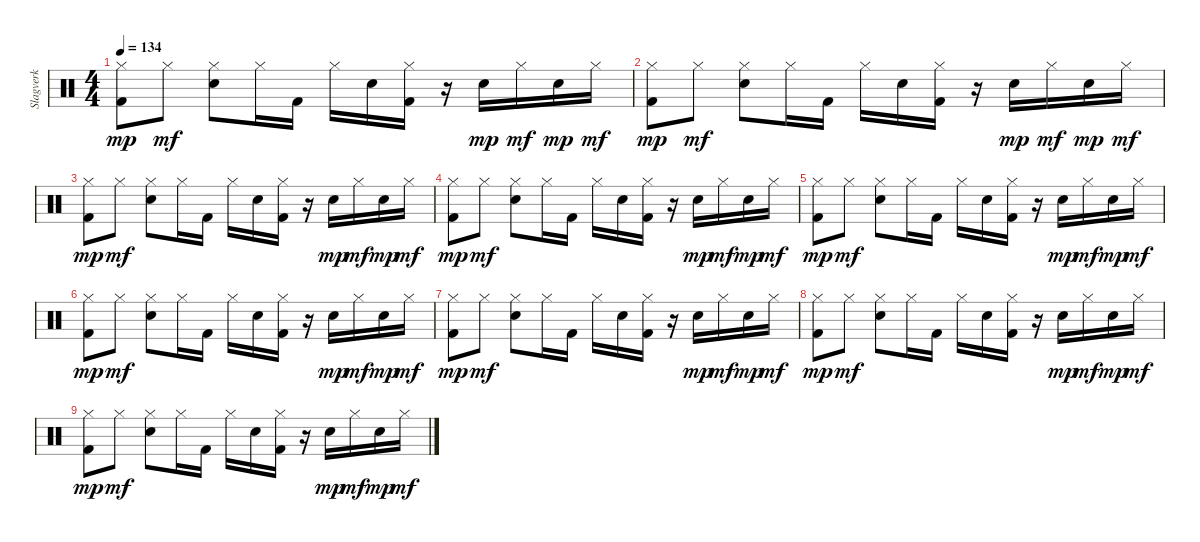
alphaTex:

\track ("Slagverk" "Slagverk") {instrument percussion}
\staff {score}
\articulation defaults
\ts (4 4)
\tempo 134
\clef neutral
\ks c
("Hi-Hat (closed)" "Kick (hit) 2").8{dy mp} "Hi-Hat (closed)".8{dy mf} ("Hi-Hat (closed)" "Electric Snare (hit)").8 "Hi-Hat (closed)".16 "Kick (hit) 2".16 "Hi-Hat (closed)".16 "Electric Snare (hit)".16 ("Hi-Hat (closed)" "Kick (hit) 2").16 r.16 "Electric Snare (hit)".16{dy mp} "Hi-Hat (closed)".16{dy mf} "Electric Snare (hit)".16{dy mp} "Hi-Hat (closed)".16{dy mf} |
("Hi-Hat (closed)" "Kick (hit) 2").8{dy mp} "Hi-Hat (closed)".8{dy mf} ("Hi-Hat (closed)" "Electric Snare (hit)").8 "Hi-Hat (closed)".16 "Kick (hit) 2".16 "Hi-Hat (closed)".16 "Electric Snare (hit)".16 ("Hi-Hat (closed)" "Kick (hit) 2").16 r.16 "Electric Snare (hit)".16{dy mp} "Hi-Hat (closed)".16{dy mf} "Electric Snare (hit)".16{dy mp} "Hi-Hat (closed)".16{dy mf} |
("Hi-Hat (closed)" "Kick (hit) 2").8{dy mp} "Hi-Hat (closed)".8{dy mf} ("Hi-Hat (closed)" "Electric Snare (hit)").8 "Hi-Hat (closed)".16 "Kick (hit) 2".16 "Hi-Hat (closed)".16 "Electric Snare (hit)".16 ("Hi-Hat (closed)" "Kick (hit) 2").16 r.16 "Electric Snare (hit)".16{dy mp} "Hi-Hat (closed)".16{dy mf} "Electric Snare (hit)".16{dy mp} "Hi-Hat (closed)".16{dy mf} |
("Hi-Hat (closed)" "Kick (hit) 2").8{dy mp} "Hi-Hat (closed)".8{dy mf} ("Hi-Hat (closed)" "Electric Snare (hit)").8 "Hi-Hat (closed)".16 "Kick (hit) 2".16 "Hi-Hat (closed)".16 "Electric Snare (hit)".16 ("Hi-Hat (closed)" "Kick (hit) 2").16 r.16 "Electric Snare (hit)".16{dy mp} "Hi-Hat (closed)".16{dy mf} "Electric Snare (hit)".16{dy mp} "Hi-Hat (closed)".16{dy mf} |
("Hi-Hat (closed)" "Kick (hit) 2").8{dy mp} "Hi-Hat (closed)".8{dy mf} ("Hi-Hat (closed)" "Electric Snare (hit)").8 "Hi-Hat (closed)".16 "Kick (hit) 2".16 "Hi-Hat (closed)".16 "Electric Snare (hit)".16 ("Hi-Hat (closed)" "Kick (hit) 2").16 r.16 "Electric Snare (hit)".16{dy mp} "Hi-Hat (closed)".16{dy mf} "Electric Snare (hit)".16{dy mp} "Hi-Hat (closed)".16{dy mf} |
("Hi-Hat (closed)" "Kick (hit) 2").8{dy mp} "Hi-Hat (closed)".8{dy mf} ("Hi-Hat (closed)" "Electric Snare (hit)").8 "Hi-Hat (closed)".16 "Kick (hit) 2".16 "Hi-Hat (closed)".16 "Electric Snare (hit)".16 ("Hi-Hat (closed)" "Kick (hit) 2").16 r.16 "Electric Snare (hit)".16{dy mp} "Hi-Hat (closed)".16{dy mf} "Electric Snare (hit)".16{dy mp} "Hi-Hat (closed)".16{dy mf} |
("Hi-Hat (closed)" "Kick (hit) 2").8{dy mp volume 10} "Hi-Hat (closed)".8{dy mf} ("Hi-Hat (closed)" "Electric Snare (hit)").8 "Hi-Hat (closed)".16 "Kick (hit) 2".16 "Hi-Hat (closed)".16 "Electric Snare (hit)".16 ("Hi-Hat (closed)" "Kick (hit) 2").16 r.16 "Electric Snare (hit)".16{dy mp} "Hi-Hat (closed)".16{dy mf} "Electric Snare (hit)".16{dy mp} "Hi-Hat (closed)".16{dy mf} |
("Hi-Hat (closed)" "Kick (hit) 2").8{dy mp volume 5} "Hi-Hat (closed)".8{dy mf} ("Hi-Hat (closed)" "Electric Snare (hit)").8 "Hi-Hat (closed)".16 "Kick (hit) 2".16 "Hi-Hat (closed)".16 "Electric Snare (hit)".16 ("Hi-Hat (closed)" "Kick (hit) 2").16 r.16 "Electric Snare (hit)".16{dy mp} "Hi-Hat (closed)".16{dy mf} "Electric Snare (hit)".16{dy mp} "Hi-Hat (closed)".16{dy mf} |
("Hi-Hat (closed)" "Kick (hit) 2").8{dy mp volume 0} "Hi-Hat (closed)".8{dy mf} ("Hi-Hat (closed)" "Electric Snare (hit)").8 "Hi-Hat (closed)".16 "Kick (hit) 2".16 "Hi-Hat (closed)".16 "Electric Snare (hit)".16 ("Hi-Hat (closed)" "Kick (hit) 2").16 r.16 "Electric Snare (hit)".16{dy mp} "Hi-Hat (closed)".16{dy mf} "Electric Snare (hit)".16{dy mp} "Hi-Hat (closed)".16{dy mf}
